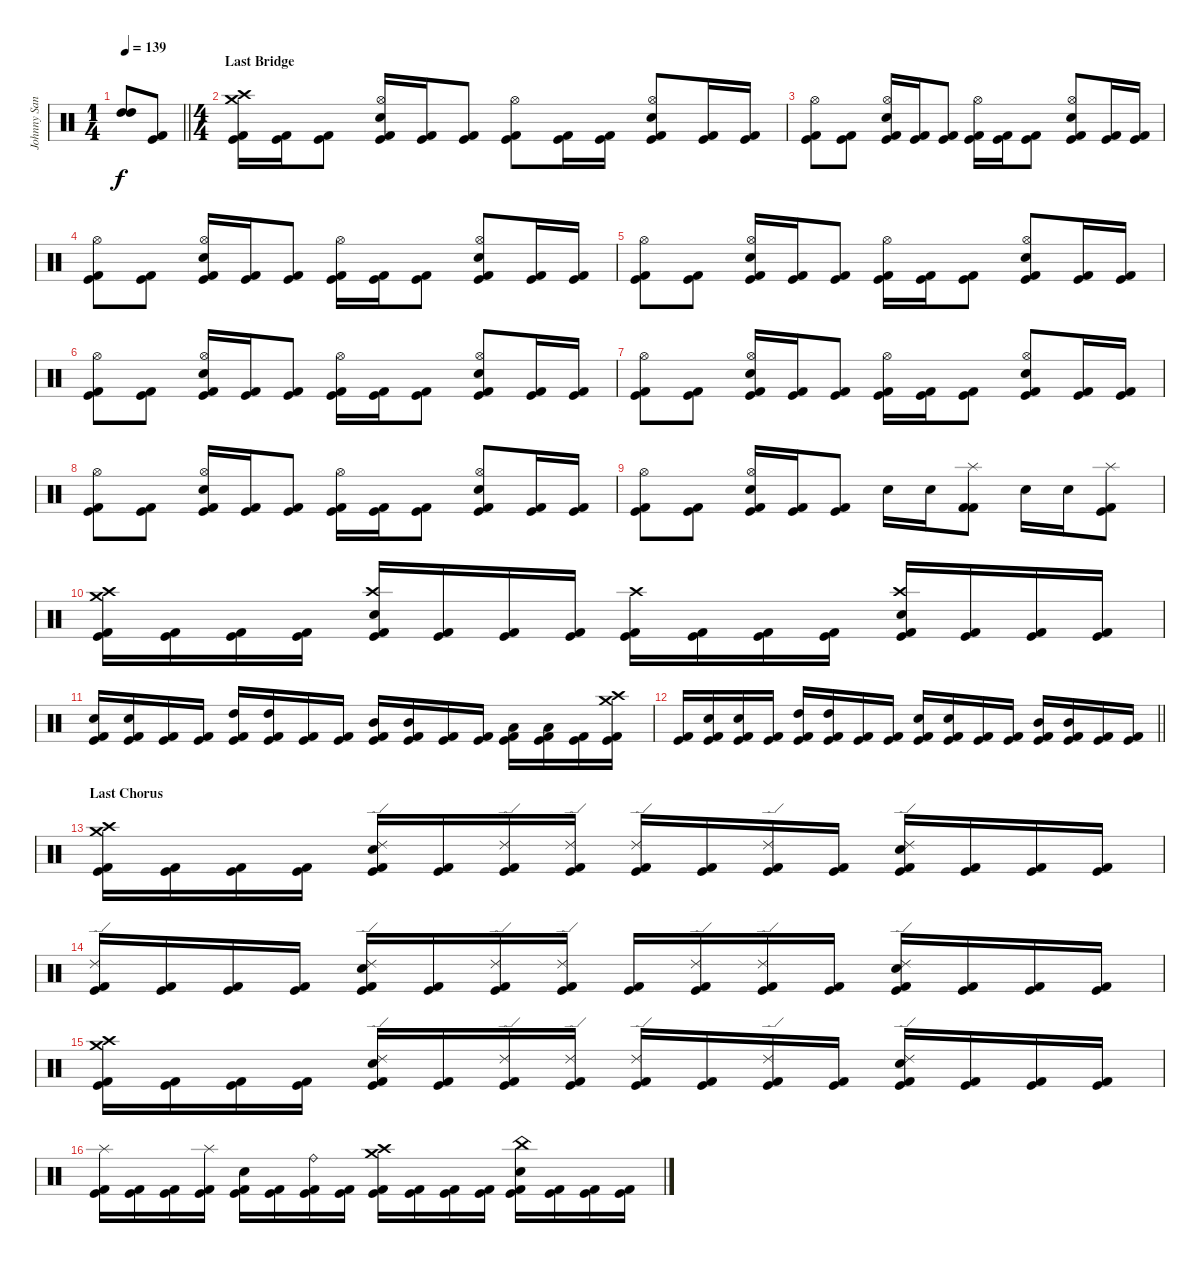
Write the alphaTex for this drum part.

\track ("Johnny Sandin" "Johnny San") {instrument percussion}
\staff {score}
\articulation defaults
\ts (1 4)
\tempo 139
\clef neutral
\barLineRight lightlight
\ks c
("High Tom (hit)" "High Tom (hit)").8{dy f} ("Kick (hit) 2" "Kick (hit)").8 |
\ts (4 4)
\section ("" "Last Bridge")
("Crash medium (hit)" "Crash high (hit)" "Kick (hit) 2" "Kick (hit)").16 ("Kick (hit) 2" "Kick (hit)").16 ("Kick (hit) 2" "Kick (hit)").8 ("Hi-Hat (open)" "Snare (hit) 2" "Kick (hit) 2" "Kick (hit)").16 ("Kick (hit) 2" "Kick (hit)").16 ("Kick (hit) 2" "Kick (hit)").8 ("Hi-Hat (open)" "Kick (hit) 2" "Kick (hit)").8 ("Kick (hit) 2" "Kick (hit)").16 ("Kick (hit) 2" "Kick (hit)").16 ("Hi-Hat (open)" "Snare (hit) 2" "Kick (hit) 2" "Kick (hit)").8 ("Kick (hit) 2" "Kick (hit)").16 ("Kick (hit) 2" "Kick (hit)").16 |
("Hi-Hat (open)" "Kick (hit) 2" "Kick (hit)").8 ("Kick (hit) 2" "Kick (hit)").8 ("Hi-Hat (open)" "Snare (hit) 2" "Kick (hit) 2" "Kick (hit)").16 ("Kick (hit) 2" "Kick (hit)").16 ("Kick (hit) 2" "Kick (hit)").8 ("Hi-Hat (open)" "Kick (hit) 2" "Kick (hit)").16 ("Kick (hit) 2" "Kick (hit)").16 ("Kick (hit) 2" "Kick (hit)").8 ("Hi-Hat (open)" "Snare (hit) 2" "Kick (hit) 2" "Kick (hit)").8 ("Kick (hit) 2" "Kick (hit)").16 ("Kick (hit) 2" "Kick (hit)").16 |
("Hi-Hat (open)" "Kick (hit) 2" "Kick (hit)").8 ("Kick (hit) 2" "Kick (hit)").8 ("Hi-Hat (open)" "Snare (hit) 2" "Kick (hit) 2" "Kick (hit)").16 ("Kick (hit) 2" "Kick (hit)").16 ("Kick (hit) 2" "Kick (hit)").8 ("Hi-Hat (open)" "Kick (hit) 2" "Kick (hit)").16 ("Kick (hit) 2" "Kick (hit)").16 ("Kick (hit) 2" "Kick (hit)").8 ("Hi-Hat (open)" "Snare (hit) 2" "Kick (hit) 2" "Kick (hit)").8 ("Kick (hit) 2" "Kick (hit)").16 ("Kick (hit) 2" "Kick (hit)").16 |
("Hi-Hat (open)" "Kick (hit) 2" "Kick (hit)").8 ("Kick (hit) 2" "Kick (hit)").8 ("Hi-Hat (open)" "Snare (hit) 2" "Kick (hit) 2" "Kick (hit)").16 ("Kick (hit) 2" "Kick (hit)").16 ("Kick (hit) 2" "Kick (hit)").8 ("Hi-Hat (open)" "Kick (hit) 2" "Kick (hit)").16 ("Kick (hit) 2" "Kick (hit)").16 ("Kick (hit) 2" "Kick (hit)").8 ("Hi-Hat (open)" "Snare (hit) 2" "Kick (hit) 2" "Kick (hit)").8 ("Kick (hit) 2" "Kick (hit)").16 ("Kick (hit) 2" "Kick (hit)").16 |
("Hi-Hat (open)" "Kick (hit) 2" "Kick (hit)").8 ("Kick (hit) 2" "Kick (hit)").8 ("Hi-Hat (open)" "Snare (hit) 2" "Kick (hit) 2" "Kick (hit)").16 ("Kick (hit) 2" "Kick (hit)").16 ("Kick (hit) 2" "Kick (hit)").8 ("Hi-Hat (open)" "Kick (hit) 2" "Kick (hit)").16 ("Kick (hit) 2" "Kick (hit)").16 ("Kick (hit) 2" "Kick (hit)").8 ("Hi-Hat (open)" "Snare (hit) 2" "Kick (hit) 2" "Kick (hit)").8 ("Kick (hit) 2" "Kick (hit)").16 ("Kick (hit) 2" "Kick (hit)").16 |
("Hi-Hat (open)" "Kick (hit) 2" "Kick (hit)").8 ("Kick (hit) 2" "Kick (hit)").8 ("Hi-Hat (open)" "Snare (hit) 2" "Kick (hit) 2" "Kick (hit)").16 ("Kick (hit) 2" "Kick (hit)").16 ("Kick (hit) 2" "Kick (hit)").8 ("Hi-Hat (open)" "Kick (hit) 2" "Kick (hit)").16 ("Kick (hit) 2" "Kick (hit)").16 ("Kick (hit) 2" "Kick (hit)").8 ("Hi-Hat (open)" "Snare (hit) 2" "Kick (hit) 2" "Kick (hit)").8 ("Kick (hit) 2" "Kick (hit)").16 ("Kick (hit) 2" "Kick (hit)").16 |
("Hi-Hat (open)" "Kick (hit) 2" "Kick (hit)").8 ("Kick (hit) 2" "Kick (hit)").8 ("Hi-Hat (open)" "Snare (hit) 2" "Kick (hit) 2" "Kick (hit)").16 ("Kick (hit) 2" "Kick (hit)").16 ("Kick (hit) 2" "Kick (hit)").8 ("Hi-Hat (open)" "Kick (hit) 2" "Kick (hit)").16 ("Kick (hit) 2" "Kick (hit)").16 ("Kick (hit) 2" "Kick (hit)").8 ("Hi-Hat (open)" "Snare (hit) 2" "Kick (hit) 2" "Kick (hit)").8 ("Kick (hit) 2" "Kick (hit)").16 ("Kick (hit) 2" "Kick (hit)").16 |
("Hi-Hat (open)" "Kick (hit) 2" "Kick (hit)").8 ("Kick (hit) 2" "Kick (hit)").8 ("Hi-Hat (open)" "Snare (hit) 2" "Kick (hit) 2" "Kick (hit)").16 ("Kick (hit) 2" "Kick (hit)").16 ("Kick (hit) 2" "Kick (hit)").8 "Snare (hit) 2".16 "Snare (hit) 2".16 ("Splash (hit)" "Kick (hit) 2" "Kick (hit) 2").8 "Snare (hit) 2".16 "Snare (hit) 2".16 ("Splash (hit)" "Kick (hit) 2" "Kick (hit)").8 |
("Crash medium (hit)" "Crash high (hit)" "Kick (hit) 2" "Kick (hit)").16 ("Kick (hit) 2" "Kick (hit)").16 ("Kick (hit) 2" "Kick (hit)").16 ("Kick (hit) 2" "Kick (hit)").16 ("Crash high (hit)" "Snare (hit) 2" "Kick (hit) 2" "Kick (hit)").16 ("Kick (hit) 2" "Kick (hit)").16 ("Kick (hit) 2" "Kick (hit)").16 ("Kick (hit) 2" "Kick (hit)").16 ("Crash high (hit)" "Kick (hit) 2" "Kick (hit)").16 ("Kick (hit) 2" "Kick (hit)").16 ("Kick (hit) 2" "Kick (hit)").16 ("Kick (hit) 2" "Kick (hit)").16 ("Crash high (hit)" "Snare (hit) 2" "Kick (hit) 2" "Kick (hit)").16 ("Kick (hit) 2" "Kick (hit)").16 ("Kick (hit) 2" "Kick (hit)").16 ("Kick (hit) 2" "Kick (hit)").16 |
("Snare (hit) 2" "Kick (hit) 2" "Kick (hit)").16 ("Snare (hit) 2" "Kick (hit) 2" "Kick (hit)").16 ("Kick (hit) 2" "Kick (hit)").16 ("Kick (hit) 2" "Kick (hit)").16 ("High Tom (hit)" "Kick (hit) 2" "Kick (hit)").16 ("High Tom (hit)" "Kick (hit) 2" "Kick (hit)").16 ("Kick (hit) 2" "Kick (hit)").16 ("Kick (hit) 2" "Kick (hit)").16 ("Mid Tom (hit)" "Kick (hit) 2" "Kick (hit)").16 ("Mid Tom (hit)" "Kick (hit) 2" "Kick (hit)").16 ("Kick (hit) 2" "Kick (hit)").16 ("Kick (hit) 2" "Kick (hit)").16 ("Low Tom (hit)" "Kick (hit) 2" "Kick (hit)").16 ("Low Tom (hit)" "Kick (hit) 2" "Kick (hit)").16 ("Kick (hit) 2" "Kick (hit)").16 ("Crash medium (hit)" "Crash high (hit)" "Kick (hit) 2" "Kick (hit)").16 |
\barLineRight lightlight
("Kick (hit) 2" "Kick (hit)").16 ("Snare (hit) 2" "Kick (hit) 2" "Kick (hit)").16 ("Snare (hit) 2" "Kick (hit) 2" "Kick (hit)").16 ("Kick (hit) 2" "Kick (hit)").16 ("High Tom (hit)" "Kick (hit) 2" "Kick (hit)").16 ("High Tom (hit)" "Kick (hit) 2" "Kick (hit)").16 ("Kick (hit) 2" "Kick (hit)").16 ("Kick (hit) 2" "Kick (hit)").16 ("Snare (hit) 2" "Kick (hit) 2" "Kick (hit)").16 ("Snare (hit) 2" "Kick (hit) 2" "Kick (hit)").16 ("Kick (hit) 2" "Kick (hit)").16 ("Kick (hit) 2" "Kick (hit)").16 ("Mid Tom (hit)" "Kick (hit) 2" "Kick (hit)").16 ("Mid Tom (hit)" "Kick (hit) 2" "Kick (hit)").16 ("Kick (hit) 2" "Kick (hit)").16 ("Kick (hit) 2" "Kick (hit)").16 |
\section ("" "Last Chorus")
("Crash medium (hit)" "Crash high (hit)" "Kick (hit) 2" "Kick (hit)").16 ("Kick (hit) 2" "Kick (hit)").16 ("Kick (hit) 2" "Kick (hit)").16 ("Kick (hit) 2" "Kick (hit)").16 ("Ride (edge) 2" "Snare (hit) 2" "Kick (hit) 2" "Kick (hit)").16 ("Kick (hit) 2" "Kick (hit)").16 ("Ride (edge) 2" "Kick (hit) 2" "Kick (hit)").16 ("Ride (edge) 2" "Kick (hit) 2" "Kick (hit)").16 ("Ride (edge) 2" "Kick (hit) 2" "Kick (hit)").16 ("Kick (hit) 2" "Kick (hit)").16 ("Ride (edge) 2" "Kick (hit) 2" "Kick (hit)").16 ("Kick (hit) 2" "Kick (hit)").16 ("Ride (edge) 2" "Snare (hit) 2" "Kick (hit) 2" "Kick (hit)").16 ("Kick (hit) 2" "Kick (hit)").16 ("Kick (hit) 2" "Kick (hit)").16 ("Kick (hit) 2" "Kick (hit)").16 |
("Ride (edge) 2" "Kick (hit) 2" "Kick (hit)").16 ("Kick (hit) 2" "Kick (hit)").16 ("Kick (hit) 2" "Kick (hit)").16 ("Kick (hit) 2" "Kick (hit)").16 ("Ride (edge) 2" "Snare (hit) 2" "Kick (hit) 2" "Kick (hit)").16 ("Kick (hit) 2" "Kick (hit)").16 ("Ride (edge) 2" "Kick (hit) 2" "Kick (hit)").16 ("Ride (edge) 2" "Kick (hit) 2" "Kick (hit)").16 ("Kick (hit) 2" "Kick (hit)").16 ("Ride (edge) 2" "Kick (hit) 2" "Kick (hit)").16 ("Ride (edge) 2" "Kick (hit) 2" "Kick (hit)").16 ("Kick (hit) 2" "Kick (hit)").16 ("Ride (edge) 2" "Snare (hit) 2" "Kick (hit) 2" "Kick (hit)").16 ("Kick (hit) 2" "Kick (hit)").16 ("Kick (hit) 2" "Kick (hit)").16 ("Kick (hit) 2" "Kick (hit)").16 |
("Crash medium (hit)" "Crash high (hit)" "Kick (hit) 2" "Kick (hit)").16 ("Kick (hit) 2" "Kick (hit)").16 ("Kick (hit) 2" "Kick (hit)").16 ("Kick (hit) 2" "Kick (hit)").16 ("Ride (edge) 2" "Snare (hit) 2" "Kick (hit) 2" "Kick (hit)").16 ("Kick (hit) 2" "Kick (hit)").16 ("Ride (edge) 2" "Kick (hit) 2" "Kick (hit)").16 ("Ride (edge) 2" "Kick (hit) 2" "Kick (hit)").16 ("Ride (edge) 2" "Kick (hit) 2" "Kick (hit)").16 ("Kick (hit) 2" "Kick (hit)").16 ("Ride (edge) 2" "Kick (hit) 2" "Kick (hit)").16 ("Kick (hit) 2" "Kick (hit)").16 ("Ride (edge) 2" "Snare (hit) 2" "Kick (hit) 2" "Kick (hit)").16 ("Kick (hit) 2" "Kick (hit)").16 ("Kick (hit) 2" "Kick (hit)").16 ("Kick (hit) 2" "Kick (hit)").16 |
("Splash (hit)" "Kick (hit) 2" "Kick (hit)").16 ("Kick (hit) 2" "Kick (hit)").16 ("Kick (hit) 2" "Kick (hit)").16 ("Splash (hit)" "Kick (hit) 2" "Kick (hit)").16 ("Snare (hit) 2" "Kick (hit) 2" "Kick (hit)").16 ("Kick (hit) 2" "Kick (hit)").16 ("Ride (bell)" "Kick (hit) 2" "Kick (hit)").16 ("Kick (hit) 2" "Kick (hit)").16 ("Crash medium (hit)" "Crash high (hit)" "Kick (hit) 2" "Kick (hit)").16 ("Kick (hit) 2" "Kick (hit)").16 ("Kick (hit) 2" "Kick (hit)").16 ("Kick (hit) 2" "Kick (hit)").16 ("China (hit)" "Snare (hit) 2" "Kick (hit) 2" "Kick (hit)").16 ("Kick (hit) 2" "Kick (hit)").16 ("Kick (hit) 2" "Kick (hit)").16 ("Kick (hit) 2" "Kick (hit)").16
